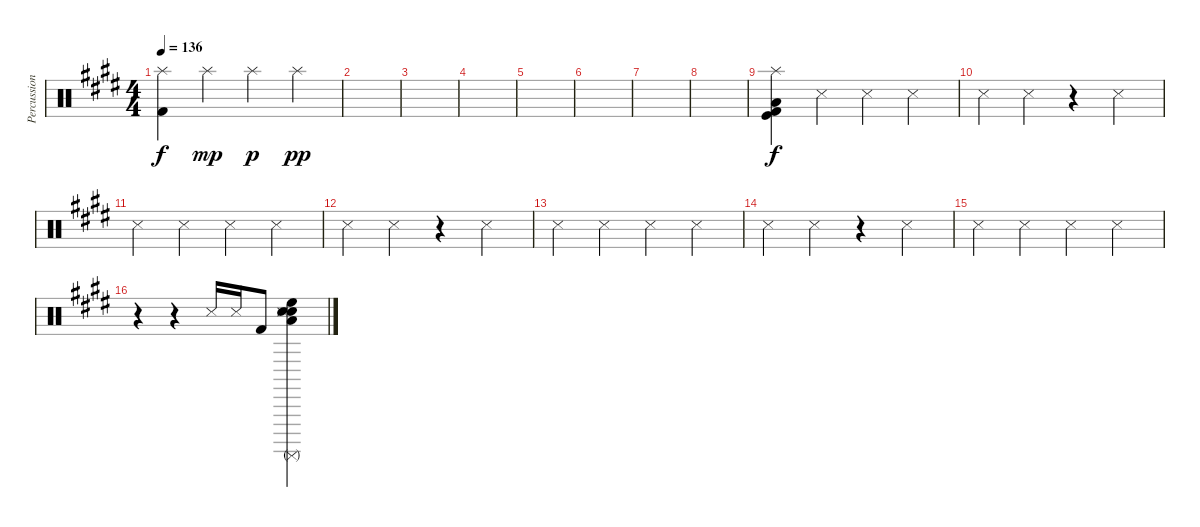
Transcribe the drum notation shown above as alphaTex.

\track ("Percussion" "Percussion") {instrument percussion}
\staff {score}
\articulation defaults
\ts (4 4)
\tempo 136
\clef neutral
\ks e
("Splash (hit)" "Kick (hit) 2").4{dy f} "Splash (hit)".4{dy mp} "Splash (hit)".4{dy p} "Splash (hit)".4{dy pp} |
|
|
|
|
|
|
|
("Splash (hit)" "Low Tom (hit)" "Kick (hit) 2" "Kick (hit)").4{dy f} "Snare (side stick) 3".4 "Snare (side stick) 3".4 "Snare (side stick) 3".4 |
"Snare (side stick) 3".4 "Snare (side stick) 3".4 r.4 "Snare (side stick) 3".4 |
"Snare (side stick) 3".4 "Snare (side stick) 3".4 "Snare (side stick) 3".4 "Snare (side stick) 3".4 |
"Snare (side stick) 3".4 "Snare (side stick) 3".4 r.4 "Snare (side stick) 3".4 |
"Snare (side stick) 3".4 "Snare (side stick) 3".4 "Snare (side stick) 3".4 "Snare (side stick) 3".4 |
"Snare (side stick) 3".4 "Snare (side stick) 3".4 r.4 "Snare (side stick) 3".4 |
"Snare (side stick) 3".4 "Snare (side stick) 3".4 "Snare (side stick) 3".4 "Snare (side stick) 3".4 |
r.4 r.4 "Snare (side stick) 3".16 "Snare (side stick) 3".16 "Kick (hit) 2".8 ("Low Tom (hit)" "Surdo (mute)" "Electric Snare (hit)" "Hand Clap (hit)" "Snare (side stick) 3" "High Floor Tom (hit)").4
